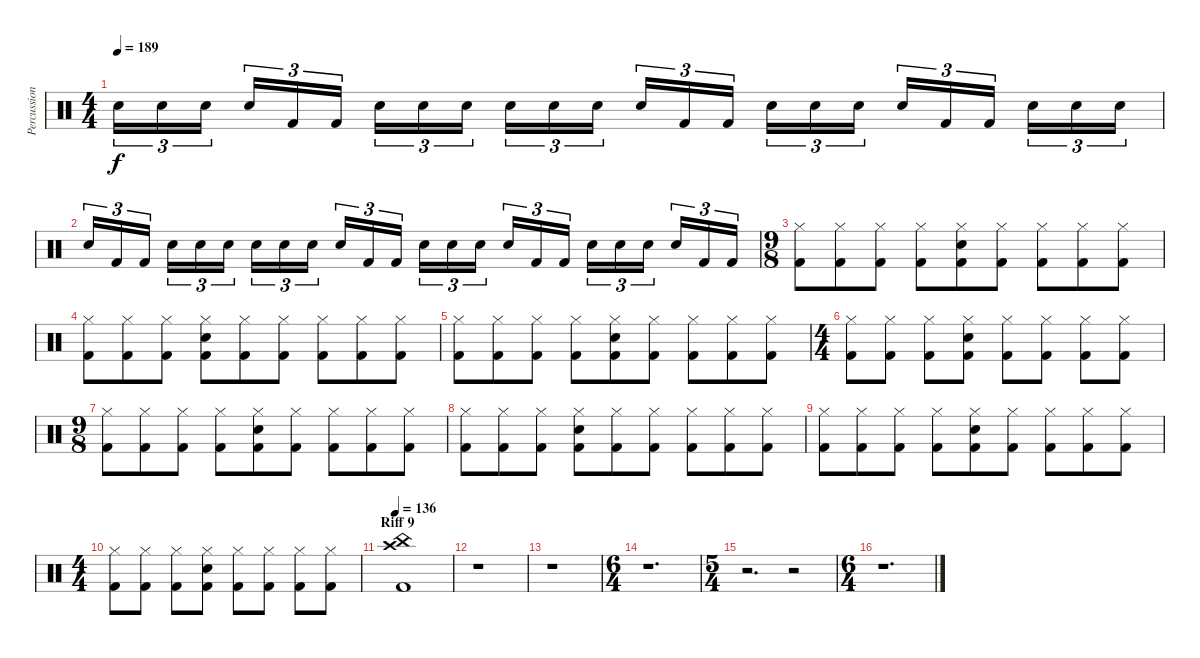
\track ("Percussion" "Percussion") {instrument percussion}
\staff {score}
\articulation defaults
\ts (4 4)
\tempo 189
\clef neutral
\ks c "Electric Snare (hit)".16{tu (3 2) dy f} "Electric Snare (hit)".16{tu (3 2)} "Electric Snare (hit)".16{tu (3 2)} "Electric Snare (hit)".16{tu (3 2)} "Kick (hit) 2".16{tu (3 2)} "Kick (hit) 2".16{tu (3 2)} "Electric Snare (hit)".16{tu (3 2)} "Electric Snare (hit)".16{tu (3 2)} "Electric Snare (hit)".16{tu (3 2)} "Electric Snare (hit)".16{tu (3 2)} "Electric Snare (hit)".16{tu (3 2)} "Electric Snare (hit)".16{tu (3 2)} "Electric Snare (hit)".16{tu (3 2)} "Kick (hit) 2".16{tu (3 2)} "Kick (hit) 2".16{tu (3 2)} "Electric Snare (hit)".16{tu (3 2)} "Electric Snare (hit)".16{tu (3 2)} "Electric Snare (hit)".16{tu (3 2)} "Electric Snare (hit)".16{tu (3 2)} "Kick (hit) 2".16{tu (3 2)} "Kick (hit) 2".16{tu (3 2)} "Electric Snare (hit)".16{tu (3 2)} "Electric Snare (hit)".16{tu (3 2)} "Electric Snare (hit)".16{tu (3 2)}
|
"Electric Snare (hit)".16{tu (3 2)} "Kick (hit) 2".16{tu (3 2)} "Kick (hit) 2".16{tu (3 2)} "Electric Snare (hit)".16{tu (3 2)} "Electric Snare (hit)".16{tu (3 2)} "Electric Snare (hit)".16{tu (3 2)} "Electric Snare (hit)".16{tu (3 2)} "Electric Snare (hit)".16{tu (3 2)} "Electric Snare (hit)".16{tu (3 2)} "Electric Snare (hit)".16{tu (3 2)} "Kick (hit) 2".16{tu (3 2)} "Kick (hit) 2".16{tu (3 2)} "Electric Snare (hit)".16{tu (3 2)} "Electric Snare (hit)".16{tu (3 2)} "Electric Snare (hit)".16{tu (3 2)} "Electric Snare (hit)".16{tu (3 2)} "Kick (hit) 2".16{tu (3 2)} "Kick (hit) 2".16{tu (3 2)} "Electric Snare (hit)".16{tu (3 2)} "Electric Snare (hit)".16{tu (3 2)} "Electric Snare (hit)".16{tu (3 2)} "Electric Snare (hit)".16{tu (3 2)} "Kick (hit) 2".16{tu (3 2)} "Kick (hit) 2".16{tu (3 2)} |
\ts (9 8)
("Hi-Hat (closed)" "Kick (hit) 2").8 ("Hi-Hat (closed)" "Kick (hit) 2").8 ("Hi-Hat (closed)" "Kick (hit) 2").8 ("Hi-Hat (closed)" "Kick (hit) 2").8 ("Hi-Hat (closed)" "Electric Snare (hit)" "Kick (hit) 2").8 ("Hi-Hat (closed)" "Kick (hit) 2").8 ("Hi-Hat (closed)" "Kick (hit) 2").8 ("Hi-Hat (closed)" "Kick (hit) 2").8 ("Hi-Hat (closed)" "Kick (hit) 2").8 |
("Hi-Hat (closed)" "Kick (hit) 2").8 ("Hi-Hat (closed)" "Kick (hit) 2").8 ("Hi-Hat (closed)" "Kick (hit) 2").8 ("Hi-Hat (closed)" "Electric Snare (hit)" "Kick (hit) 2").8 ("Hi-Hat (closed)" "Kick (hit) 2").8 ("Hi-Hat (closed)" "Kick (hit) 2").8 ("Hi-Hat (closed)" "Kick (hit) 2").8 ("Hi-Hat (closed)" "Kick (hit) 2").8 ("Hi-Hat (closed)" "Kick (hit) 2").8 |
("Hi-Hat (closed)" "Kick (hit) 2").8 ("Hi-Hat (closed)" "Kick (hit) 2").8 ("Hi-Hat (closed)" "Kick (hit) 2").8 ("Hi-Hat (closed)" "Kick (hit) 2").8 ("Hi-Hat (closed)" "Electric Snare (hit)" "Kick (hit) 2").8 ("Hi-Hat (closed)" "Kick (hit) 2").8 ("Hi-Hat (closed)" "Kick (hit) 2").8 ("Hi-Hat (closed)" "Kick (hit) 2").8 ("Hi-Hat (closed)" "Kick (hit) 2").8 |
\ts (4 4)
("Hi-Hat (closed)" "Kick (hit) 2").8 ("Hi-Hat (closed)" "Kick (hit) 2").8 ("Hi-Hat (closed)" "Kick (hit) 2").8 ("Hi-Hat (closed)" "Electric Snare (hit)" "Kick (hit) 2").8 ("Hi-Hat (closed)" "Kick (hit) 2").8 ("Hi-Hat (closed)" "Kick (hit) 2").8 ("Hi-Hat (closed)" "Kick (hit) 2").8 ("Hi-Hat (closed)" "Kick (hit) 2").8 |
\ts (9 8)
("Hi-Hat (closed)" "Kick (hit) 2").8 ("Hi-Hat (closed)" "Kick (hit) 2").8 ("Hi-Hat (closed)" "Kick (hit) 2").8 ("Hi-Hat (closed)" "Kick (hit) 2").8 ("Hi-Hat (closed)" "Electric Snare (hit)" "Kick (hit) 2").8 ("Hi-Hat (closed)" "Kick (hit) 2").8 ("Hi-Hat (closed)" "Kick (hit) 2").8 ("Hi-Hat (closed)" "Kick (hit) 2").8 ("Hi-Hat (closed)" "Kick (hit) 2").8 |
("Hi-Hat (closed)" "Kick (hit) 2").8 ("Hi-Hat (closed)" "Kick (hit) 2").8 ("Hi-Hat (closed)" "Kick (hit) 2").8 ("Hi-Hat (closed)" "Electric Snare (hit)" "Kick (hit) 2").8 ("Hi-Hat (closed)" "Kick (hit) 2").8 ("Hi-Hat (closed)" "Kick (hit) 2").8 ("Hi-Hat (closed)" "Kick (hit) 2").8 ("Hi-Hat (closed)" "Kick (hit) 2").8 ("Hi-Hat (closed)" "Kick (hit) 2").8 |
("Hi-Hat (closed)" "Kick (hit) 2").8 ("Hi-Hat (closed)" "Kick (hit) 2").8 ("Hi-Hat (closed)" "Kick (hit) 2").8 ("Hi-Hat (closed)" "Kick (hit) 2").8 ("Hi-Hat (closed)" "Electric Snare (hit)" "Kick (hit) 2").8 ("Hi-Hat (closed)" "Kick (hit) 2").8 ("Hi-Hat (closed)" "Kick (hit) 2").8 ("Hi-Hat (closed)" "Kick (hit) 2").8 ("Hi-Hat (closed)" "Kick (hit) 2").8 |
\ts (4 4)
("Hi-Hat (closed)" "Kick (hit) 2").8 ("Hi-Hat (closed)" "Kick (hit) 2").8 ("Hi-Hat (closed)" "Kick (hit) 2").8 ("Hi-Hat (closed)" "Electric Snare (hit)" "Kick (hit) 2").8 ("Hi-Hat (closed)" "Kick (hit) 2").8 ("Hi-Hat (closed)" "Kick (hit) 2").8 ("Hi-Hat (closed)" "Kick (hit) 2").8 ("Hi-Hat (closed)" "Kick (hit) 2").8 |
\section ("" "Riff 9")
\tempo 136
("China (hit)" "Crash high (hit)" "Kick (hit) 2").1 |
r.1 |
r.1 |
\ts (6 4)
r.1{d} |
\ts (5 4)
r.2{d} r.2 |
\ts (6 4)
r.1{d}
